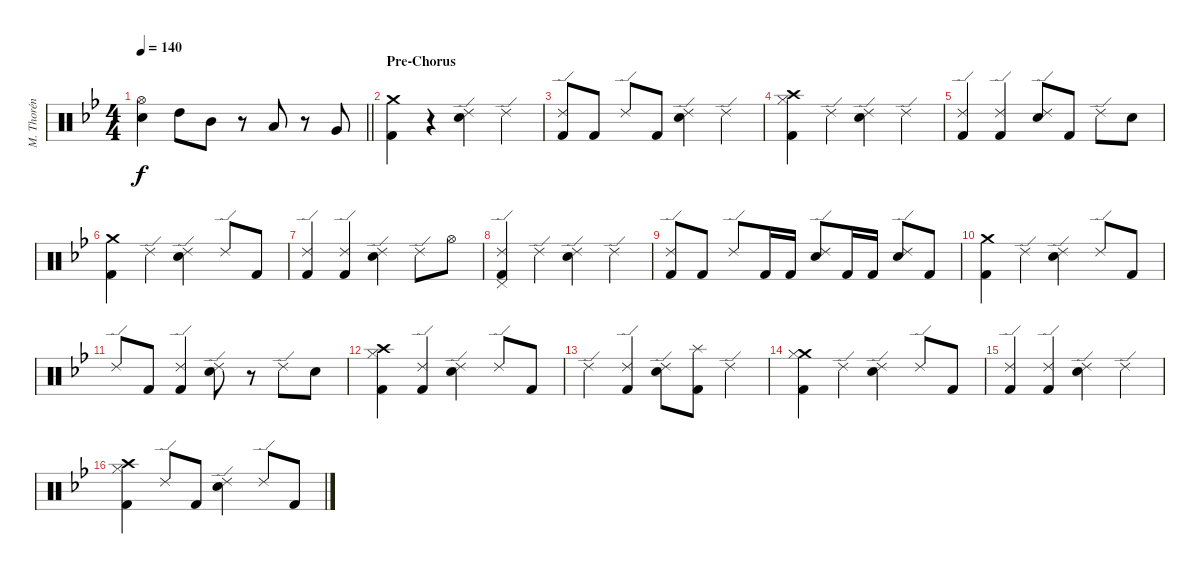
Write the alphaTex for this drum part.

\track ("M. Thorén (Drums)" "M. Thorén ") {instrument percussion}
\staff {score}
\articulation defaults
\ts (4 4)
\tempo 140
\clef neutral
\barLineRight lightlight
\ks gminor
("Hi-Hat (open)" "Electric Snare (hit)").4{dy f} "High Tom (hit)".8 "Mid Tom (hit)".8 r.8 "Low Tom (hit)".8 r.8 "Very Low Tom (hit)".8 |
\section ("" "Pre-Chorus")
("Crash medium (hit)" "Kick (hit) 2").4 r.4 ("Ride (edge) 2" "Electric Snare (hit)").4 "Ride (edge) 2".4 |
("Ride (edge) 2" "Kick (hit) 2").8 "Kick (hit) 2".8 "Ride (edge) 2".8 "Kick (hit) 2".8 ("Ride (edge) 2" "Electric Snare (hit)").4 "Ride (edge) 2".4 |
("Crash high (hit)" "Hi-Hat (closed)" "Kick (hit) 2").4 "Ride (edge) 2".4 ("Ride (edge) 2" "Electric Snare (hit)").4 "Ride (edge) 2".4 |
("Ride (edge) 2" "Kick (hit) 2").4 ("Ride (edge) 2" "Kick (hit) 2").4 ("Ride (edge) 2" "Electric Snare (hit)").8 "Kick (hit) 2".8 "Ride (edge) 2".8 "Electric Snare (hit)".8 |
("Crash medium (hit)" "Kick (hit) 2").4 "Ride (edge) 2".4 ("Ride (edge) 2" "Electric Snare (hit)").4 "Ride (edge) 2".8 "Kick (hit) 2".8 |
("Ride (edge) 2" "Kick (hit) 2").4 ("Ride (edge) 2" "Kick (hit) 2").4 ("Ride (edge) 2" "Electric Snare (hit)").4 "Ride (edge) 2".8 "Hi-Hat (open)".8 |
("Ride (edge) 2" "Pedal Hi-Hat (hit)" "Kick (hit) 2").4 "Ride (edge) 2".4 ("Ride (edge) 2" "Electric Snare (hit)").4 "Ride (edge) 2".4 |
("Ride (edge) 2" "Kick (hit) 2").8 "Kick (hit) 2".8 "Ride (edge) 2".8 "Kick (hit) 2".16 "Kick (hit) 2".16 ("Ride (edge) 2" "Electric Snare (hit)").8 "Kick (hit) 2".16 "Kick (hit) 2".16 ("Ride (edge) 2" "Electric Snare (hit)").8 "Kick (hit) 2".8 |
("Crash medium (hit)" "Kick (hit) 2").4 "Ride (edge) 2".4 ("Ride (edge) 2" "Electric Snare (hit)").4 "Ride (edge) 2".8 "Kick (hit) 2".8 |
"Ride (edge) 2".8 "Kick (hit) 2".8 ("Ride (edge) 2" "Kick (hit) 2").4 ("Ride (edge) 2" "Electric Snare (hit)").8 r.8 "Ride (edge) 2".8 "Electric Snare (hit)".8 |
("Crash high (hit)" "Hi-Hat (closed)" "Kick (hit) 2").4 ("Ride (edge) 2" "Kick (hit) 2").4 ("Ride (edge) 2" "Electric Snare (hit)").4 "Ride (edge) 2".8 "Kick (hit) 2".8 |
"Ride (edge) 2".4 ("Ride (edge) 2" "Kick (hit) 2").4 ("Ride (edge) 2" "Electric Snare (hit)").8 ("Splash (hit)" "Kick (hit) 2").8 "Ride (edge) 2".4 |
("Crash medium (hit)" "Hi-Hat (closed)" "Kick (hit) 2").4 "Ride (edge) 2".4 ("Ride (edge) 2" "Electric Snare (hit)").4 "Ride (edge) 2".8 "Kick (hit) 2".8 |
("Ride (edge) 2" "Kick (hit) 2").4 ("Ride (edge) 2" "Kick (hit) 2").4 ("Ride (edge) 2" "Electric Snare (hit)").4 "Ride (edge) 2".4 |
("Crash high (hit)" "Hi-Hat (closed)" "Kick (hit) 2").4 "Ride (edge) 2".8 "Kick (hit) 2".8 ("Ride (edge) 2" "Electric Snare (hit)").4 "Ride (edge) 2".8 "Kick (hit) 2".8
